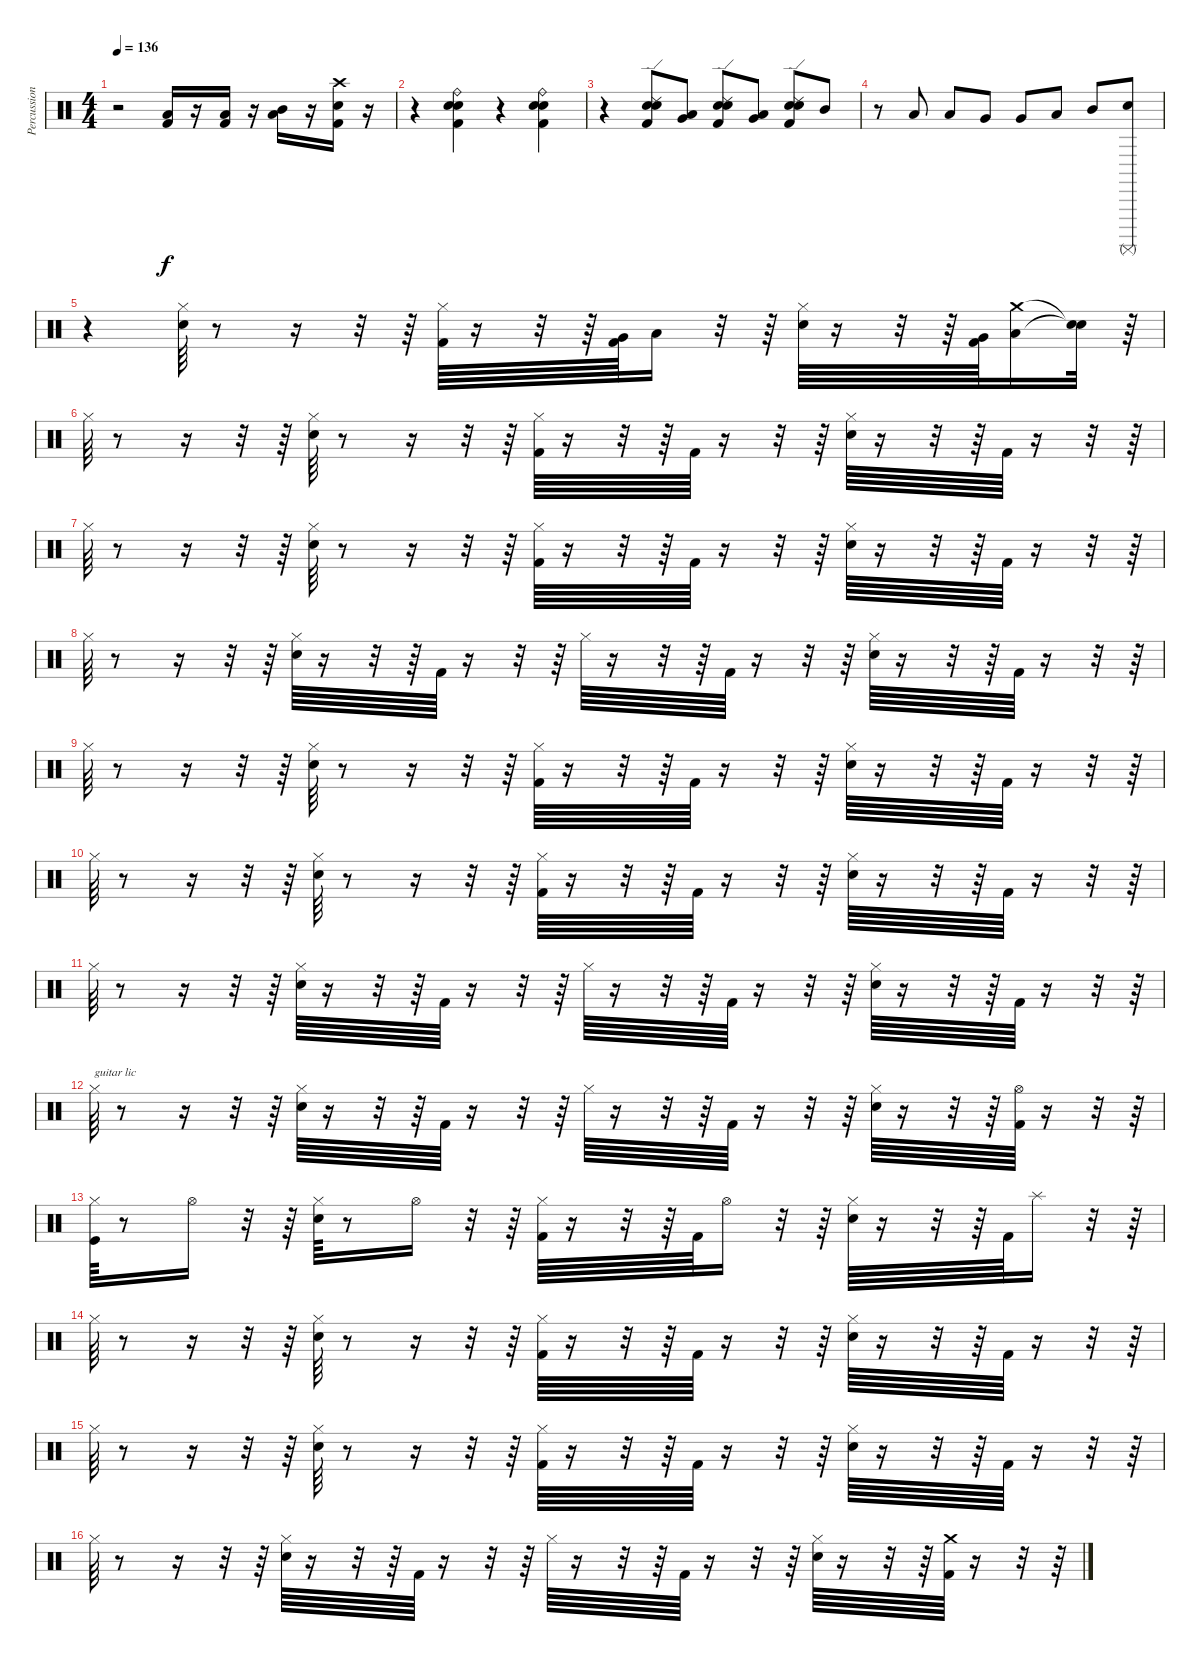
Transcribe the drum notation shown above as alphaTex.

\track ("Percussions" "Percussion") {instrument percussion}
\staff {score}
\articulation defaults
\ts (4 4)
\tempo 136
\clef neutral
\ks c
r.2{dy f} ("Kick (hit) 2" "Low Floor Tom (hit)").16 r.16 ("Kick (hit) 2" "Low Tom (hit)").16 r.16 ("Low Floor Tom (hit)" "Mid Tom (hit)").16 r.16 ("Electric Snare (hit)" "Kick (hit) 2" "Crash high (hit)").16 r.16 |
r.4 ("Electric Snare (hit)" "Snare (hit) 2" "Kick (hit) 2" "Ride (bell)").4 r.4 ("Electric Snare (hit)" "Snare (hit) 2" "Kick (hit) 2" "Ride (bell)").4 |
r.4 ("Electric Snare (hit)" "Snare (hit) 2" "Kick (hit) 2" "Ride (edge) 2").8 ("Low Floor Tom (hit)" "Very Low Tom (hit)").8 ("Electric Snare (hit)" "Snare (hit) 2" "Kick (hit) 2" "Ride (edge) 2").8 ("Very Low Tom (hit)" "Low Tom (hit)").8 ("Electric Snare (hit)" "Snare (hit) 2" "Kick (hit) 2" "Ride (edge) 2").8 "Mid Tom (hit)".8 |
r.8 "Low Floor Tom (hit)".8 "Low Floor Tom (hit)".8 "Very Low Tom (hit)".8 "Very Low Tom (hit)".8 "Low Tom (hit)".8 "Mid Tom (hit)".8 ("Snare (hit) 2" "Surdo (mute)").8 |
r.4 ("Snare (hit) 2" "Hi-Hat (closed)").64 r.8 r.16 r.32 r.64 ("Kick (hit) 2" "Hi-Hat (closed)").64 r.16 r.32 r.64 ("Kick (hit) 2" "Very Low Tom (hit)").64 "Low Floor Tom (hit)".16 r.32 r.64 ("Snare (hit) 2" "Hi-Hat (closed)").64 r.16 r.32 r.64 ("Kick (hit) 2" "Very Low Tom (hit)").64 ("Low Floor Tom (hit)" "Crash medium (hit)").16 ("Snare (hit)"{t} "Snare (hit)"{t}).32 r.64 |
"Hi-Hat (closed)".64 r.8 r.16 r.32 r.64 ("Snare (hit) 2" "Hi-Hat (closed)").64 r.8 r.16 r.32 r.64 ("Kick (hit) 2" "Hi-Hat (closed)").64 r.16 r.32 r.64 "Kick (hit) 2".64 r.16 r.32 r.64 ("Snare (hit) 2" "Hi-Hat (closed)").64 r.16 r.32 r.64 "Kick (hit) 2".64 r.16 r.32 r.64 |
"Hi-Hat (closed)".64 r.8 r.16 r.32 r.64 ("Snare (hit) 2" "Hi-Hat (closed)").64 r.8 r.16 r.32 r.64 ("Kick (hit) 2" "Hi-Hat (closed)").64 r.16 r.32 r.64 "Kick (hit) 2".64 r.16 r.32 r.64 ("Snare (hit) 2" "Hi-Hat (closed)").64 r.16 r.32 r.64 "Kick (hit) 2".64 r.16 r.32 r.64 |
"Hi-Hat (closed)".64 r.8 r.16 r.32 r.64 ("Snare (hit) 2" "Hi-Hat (closed)").64 r.16 r.32 r.64 "Kick (hit) 2".64 r.16 r.32 r.64 "Hi-Hat (closed)".64 r.16 r.32 r.64 "Kick (hit) 2".64 r.16 r.32 r.64 ("Snare (hit) 2" "Hi-Hat (closed)").64 r.16 r.32 r.64 "Kick (hit) 2".64 r.16 r.32 r.64 |
"Hi-Hat (closed)".64 r.8 r.16 r.32 r.64 ("Snare (hit) 2" "Hi-Hat (closed)").64 r.8 r.16 r.32 r.64 ("Kick (hit) 2" "Hi-Hat (closed)").64 r.16 r.32 r.64 "Kick (hit) 2".64 r.16 r.32 r.64 ("Snare (hit) 2" "Hi-Hat (closed)").64 r.16 r.32 r.64 "Kick (hit) 2".64 r.16 r.32 r.64 |
"Hi-Hat (closed)".64 r.8 r.16 r.32 r.64 ("Snare (hit) 2" "Hi-Hat (closed)").64 r.8 r.16 r.32 r.64 ("Kick (hit) 2" "Hi-Hat (closed)").64 r.16 r.32 r.64 "Kick (hit) 2".64 r.16 r.32 r.64 ("Snare (hit) 2" "Hi-Hat (closed)").64 r.16 r.32 r.64 "Kick (hit) 2".64 r.16 r.32 r.64 |
"Hi-Hat (closed)".64 r.8 r.16 r.32 r.64 ("Snare (hit) 2" "Hi-Hat (closed)").64 r.16 r.32 r.64 "Kick (hit) 2".64 r.16 r.32 r.64 "Hi-Hat (closed)".64 r.16 r.32 r.64 "Kick (hit) 2".64 r.16 r.32 r.64 ("Snare (hit) 2" "Hi-Hat (closed)").64 r.16 r.32 r.64 "Kick (hit) 2".64 r.16 r.32 r.64 |
"Hi-Hat (closed)".64{txt "guitar lic"} r.8 r.16 r.32 r.64 ("Snare (hit) 2" "Hi-Hat (closed)").64 r.16 r.32 r.64 "Kick (hit) 2".64 r.16 r.32 r.64 "Hi-Hat (closed)".64 r.16 r.32 r.64 "Kick (hit) 2".64 r.16 r.32 r.64 ("Snare (hit) 2" "Hi-Hat (closed)").64 r.16 r.32 r.64 ("Kick (hit) 2" "Hi-Hat (open)").64 r.16 r.32 r.64 |
("Kick (hit)" "Hi-Hat (closed)").64 r.8 "Hi-Hat (open)".16 r.32 r.64 ("Snare (hit) 2" "Hi-Hat (closed)").64 r.8 "Hi-Hat (open)".16 r.32 r.64 ("Kick (hit) 2" "Hi-Hat (closed)").64 r.16 r.32 r.64 "Kick (hit) 2".64 "Hi-Hat (open)".16 r.32 r.64 ("Snare (hit) 2" "Hi-Hat (closed)").64 r.16 r.32 r.64 "Kick (hit) 2".64 "Splash (hit)".16 r.32 r.64 |
"Hi-Hat (closed)".64 r.8 r.16 r.32 r.64 ("Snare (hit) 2" "Hi-Hat (closed)").64 r.8 r.16 r.32 r.64 ("Kick (hit) 2" "Hi-Hat (closed)").64 r.16 r.32 r.64 "Kick (hit) 2".64 r.16 r.32 r.64 ("Snare (hit) 2" "Hi-Hat (closed)").64 r.16 r.32 r.64 "Kick (hit) 2".64 r.16 r.32 r.64 |
"Hi-Hat (closed)".64 r.8 r.16 r.32 r.64 ("Snare (hit) 2" "Hi-Hat (closed)").64 r.8 r.16 r.32 r.64 ("Kick (hit) 2" "Hi-Hat (closed)").64 r.16 r.32 r.64 "Kick (hit) 2".64 r.16 r.32 r.64 ("Snare (hit) 2" "Hi-Hat (closed)").64 r.16 r.32 r.64 "Kick (hit) 2".64 r.16 r.32 r.64 |
"Hi-Hat (closed)".64 r.8 r.16 r.32 r.64 ("Snare (hit) 2" "Hi-Hat (closed)").64 r.16 r.32 r.64 "Kick (hit) 2".64 r.16 r.32 r.64 "Hi-Hat (closed)".64 r.16 r.32 r.64 "Kick (hit) 2".64 r.16 r.32 r.64 ("Snare (hit) 2" "Hi-Hat (closed)").64 r.16 r.32 r.64 ("Kick (hit) 2" "Crash medium (hit)").64 r.16 r.32 r.64
